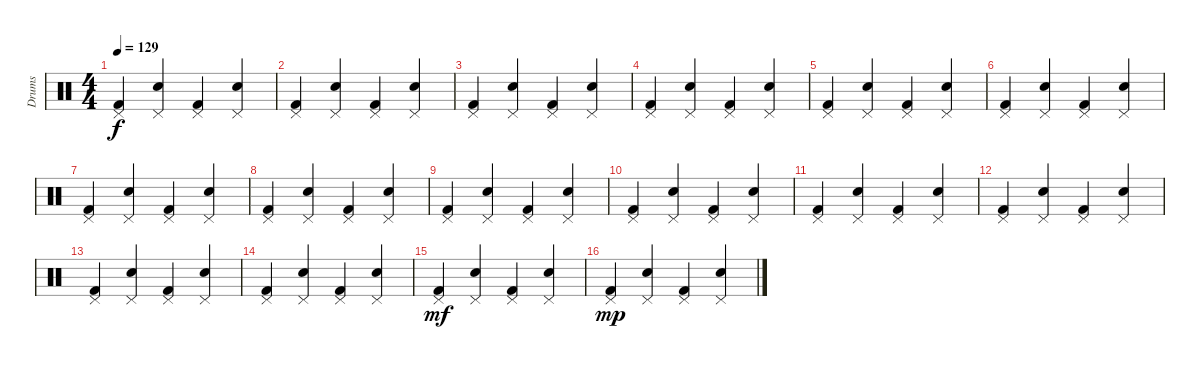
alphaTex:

\track ("Drums" "Drums") {instrument percussion}
\staff {score}
\articulation defaults
\ts (4 4)
\tempo 129
\clef neutral
\ks c
("Pedal Hi-Hat (hit)" "Kick (hit) 2").4{dy f} ("Pedal Hi-Hat (hit)" "Snare (hit) 2").4 ("Pedal Hi-Hat (hit)" "Kick (hit) 2").4 ("Pedal Hi-Hat (hit)" "Snare (hit) 2").4 |
("Pedal Hi-Hat (hit)" "Kick (hit) 2").4 ("Pedal Hi-Hat (hit)" "Snare (hit) 2").4 ("Pedal Hi-Hat (hit)" "Kick (hit) 2").4 ("Pedal Hi-Hat (hit)" "Snare (hit) 2").4 |
("Pedal Hi-Hat (hit)" "Kick (hit) 2").4 ("Pedal Hi-Hat (hit)" "Snare (hit) 2").4 ("Pedal Hi-Hat (hit)" "Kick (hit) 2").4 ("Pedal Hi-Hat (hit)" "Snare (hit) 2").4 |
("Pedal Hi-Hat (hit)" "Kick (hit) 2").4 ("Pedal Hi-Hat (hit)" "Snare (hit) 2").4 ("Pedal Hi-Hat (hit)" "Kick (hit) 2").4 ("Pedal Hi-Hat (hit)" "Snare (hit) 2").4 |
("Pedal Hi-Hat (hit)" "Kick (hit) 2").4 ("Pedal Hi-Hat (hit)" "Snare (hit) 2").4 ("Pedal Hi-Hat (hit)" "Kick (hit) 2").4 ("Pedal Hi-Hat (hit)" "Snare (hit) 2").4 |
("Pedal Hi-Hat (hit)" "Kick (hit) 2").4 ("Pedal Hi-Hat (hit)" "Snare (hit) 2").4 ("Pedal Hi-Hat (hit)" "Kick (hit) 2").4 ("Pedal Hi-Hat (hit)" "Snare (hit) 2").4 |
("Pedal Hi-Hat (hit)" "Kick (hit) 2").4 ("Pedal Hi-Hat (hit)" "Snare (hit) 2").4 ("Pedal Hi-Hat (hit)" "Kick (hit) 2").4 ("Pedal Hi-Hat (hit)" "Snare (hit) 2").4 |
("Pedal Hi-Hat (hit)" "Kick (hit) 2").4 ("Pedal Hi-Hat (hit)" "Snare (hit) 2").4 ("Pedal Hi-Hat (hit)" "Kick (hit) 2").4 ("Pedal Hi-Hat (hit)" "Snare (hit) 2").4 |
("Pedal Hi-Hat (hit)" "Kick (hit) 2").4 ("Pedal Hi-Hat (hit)" "Snare (hit) 2").4 ("Pedal Hi-Hat (hit)" "Kick (hit) 2").4 ("Pedal Hi-Hat (hit)" "Snare (hit) 2").4 |
("Pedal Hi-Hat (hit)" "Kick (hit) 2").4 ("Pedal Hi-Hat (hit)" "Snare (hit) 2").4 ("Pedal Hi-Hat (hit)" "Kick (hit) 2").4 ("Pedal Hi-Hat (hit)" "Snare (hit) 2").4 |
("Pedal Hi-Hat (hit)" "Kick (hit) 2").4 ("Pedal Hi-Hat (hit)" "Snare (hit) 2").4 ("Pedal Hi-Hat (hit)" "Kick (hit) 2").4 ("Pedal Hi-Hat (hit)" "Snare (hit) 2").4 |
("Pedal Hi-Hat (hit)" "Kick (hit) 2").4 ("Pedal Hi-Hat (hit)" "Snare (hit) 2").4 ("Pedal Hi-Hat (hit)" "Kick (hit) 2").4 ("Pedal Hi-Hat (hit)" "Snare (hit) 2").4 |
("Pedal Hi-Hat (hit)" "Kick (hit) 2").4 ("Pedal Hi-Hat (hit)" "Snare (hit) 2").4 ("Pedal Hi-Hat (hit)" "Kick (hit) 2").4 ("Pedal Hi-Hat (hit)" "Snare (hit) 2").4 |
("Pedal Hi-Hat (hit)" "Kick (hit) 2").4 ("Pedal Hi-Hat (hit)" "Snare (hit) 2").4 ("Pedal Hi-Hat (hit)" "Kick (hit) 2").4 ("Pedal Hi-Hat (hit)" "Snare (hit) 2").4 |
("Pedal Hi-Hat (hit)" "Kick (hit) 2").4{dy mf} ("Pedal Hi-Hat (hit)" "Snare (hit) 2").4 ("Pedal Hi-Hat (hit)" "Kick (hit) 2").4 ("Pedal Hi-Hat (hit)" "Snare (hit) 2").4 |
("Pedal Hi-Hat (hit)" "Kick (hit) 2").4{dy mp} ("Pedal Hi-Hat (hit)" "Snare (hit) 2").4 ("Pedal Hi-Hat (hit)" "Kick (hit) 2").4 ("Pedal Hi-Hat (hit)" "Snare (hit) 2").4
